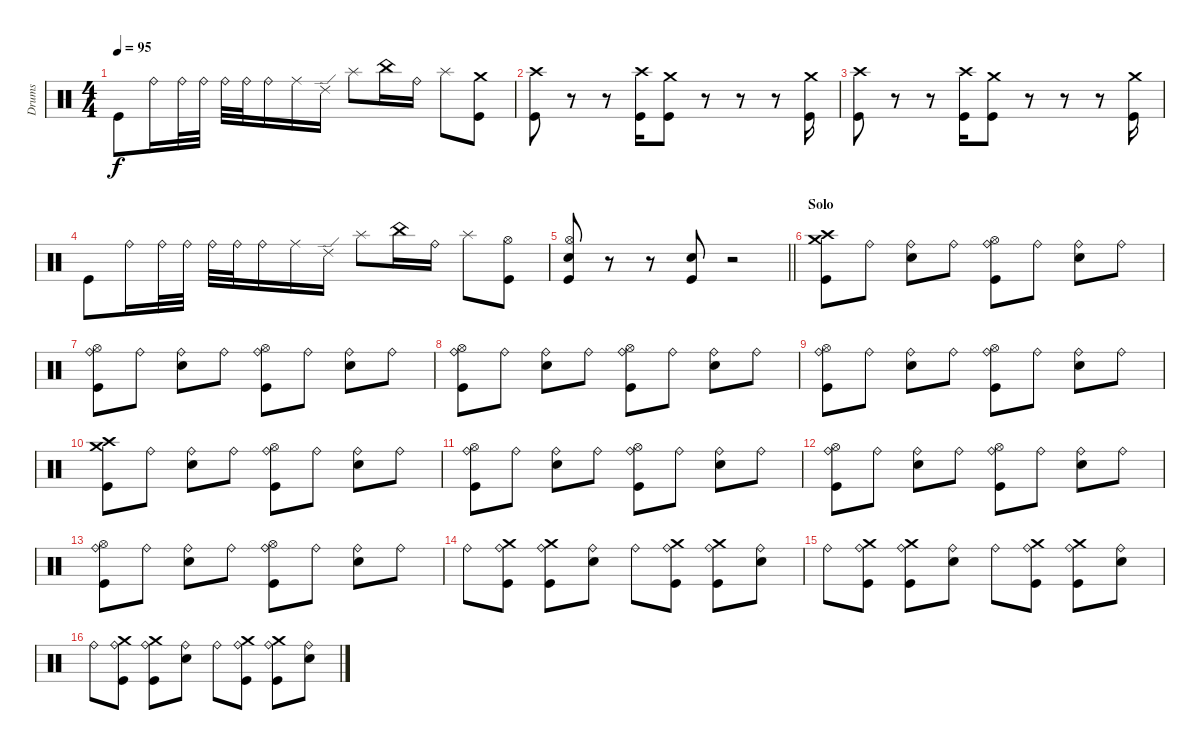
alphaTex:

\track ("Drums" "Drums") {instrument percussion}
\staff {score}
\articulation defaults
\ts (4 4)
\tempo 95
\clef neutral
\ks c "Kick (hit)".8{dy f} "Ride (bell)".16 "Ride (bell)".32 "Ride (bell)".32 "Ride (bell)".32 "Ride (bell)".32 "Ride (bell)".16 "Ride (middle)".16 "Ride (edge) 2".16 "Splash (hit)".8 "China (hit)".16 "Ride (bell)".16 "Splash (hit)".8
("Crash medium (hit)" "Kick (hit)").8 |
("Crash high (hit)" "Kick (hit)").8 r.8 r.8 ("Crash high (hit)" "Kick (hit)").16 ("Crash medium (hit)" "Kick (hit)").8 r.8 r.8 r.8 ("Crash medium (hit)" "Kick (hit)").16 |
("Crash high (hit)" "Kick (hit)").8 r.8 r.8 ("Crash high (hit)" "Kick (hit)").16 ("Crash medium (hit)" "Kick (hit)").8 r.8 r.8 r.8 ("Crash medium (hit)" "Kick (hit)").16 |
"Kick (hit)".8 "Ride (bell)".16 "Ride (bell)".32 "Ride (bell)".32 "Ride (bell)".32 "Ride (bell)".32 "Ride (bell)".16 "Ride (middle)".16 "Ride (edge) 2".16 "Splash (hit)".8 "China (hit)".16 "Ride (bell)".16 "Splash (hit)".8 ("Hi-Hat (open)" "Kick (hit)").8 |
\barLineRight lightlight
("Hi-Hat (open)" "Snare (hit) 2" "Kick (hit)").8 r.8 r.8 ("Snare (hit) 2" "Kick (hit)").8 r.2 |
\section ("" "Solo")
("Crash high (hit)" "Crash medium (hit)" "Kick (hit)").8 "Ride (bell)".8 ("Ride (bell)" "Snare (hit) 2").8 "Ride (bell)".8 ("Hi-Hat (open)" "Ride (bell)" "Kick (hit)").8 "Ride (bell)".8 ("Ride (bell)" "Snare (hit) 2").8 "Ride (bell)".8 |
("Hi-Hat (open)" "Ride (bell)" "Kick (hit)").8 "Ride (bell)".8 ("Ride (bell)" "Snare (hit) 2").8 "Ride (bell)".8 ("Hi-Hat (open)" "Ride (bell)" "Kick (hit)").8 "Ride (bell)".8 ("Ride (bell)" "Snare (hit) 2").8 "Ride (bell)".8 |
("Hi-Hat (open)" "Ride (bell)" "Kick (hit)").8 "Ride (bell)".8 ("Ride (bell)" "Snare (hit) 2").8 "Ride (bell)".8 ("Hi-Hat (open)" "Ride (bell)" "Kick (hit)").8 "Ride (bell)".8 ("Ride (bell)" "Snare (hit) 2").8 "Ride (bell)".8 |
("Hi-Hat (open)" "Ride (bell)" "Kick (hit)").8 "Ride (bell)".8 ("Ride (bell)" "Snare (hit) 2").8 "Ride (bell)".8 ("Hi-Hat (open)" "Ride (bell)" "Kick (hit)").8 "Ride (bell)".8 ("Ride (bell)" "Snare (hit) 2").8 "Ride (bell)".8 |
("Crash high (hit)" "Crash medium (hit)" "Kick (hit)").8 "Ride (bell)".8 ("Ride (bell)" "Snare (hit) 2").8 "Ride (bell)".8 ("Hi-Hat (open)" "Ride (bell)" "Kick (hit)").8 "Ride (bell)".8 ("Ride (bell)" "Snare (hit) 2").8 "Ride (bell)".8 |
("Hi-Hat (open)" "Ride (bell)" "Kick (hit)").8 "Ride (bell)".8 ("Ride (bell)" "Snare (hit) 2").8 "Ride (bell)".8 ("Hi-Hat (open)" "Ride (bell)" "Kick (hit)").8 "Ride (bell)".8 ("Ride (bell)" "Snare (hit) 2").8 "Ride (bell)".8 |
("Hi-Hat (open)" "Ride (bell)" "Kick (hit)").8 "Ride (bell)".8 ("Ride (bell)" "Snare (hit) 2").8 "Ride (bell)".8 ("Hi-Hat (open)" "Ride (bell)" "Kick (hit)").8 "Ride (bell)".8 ("Ride (bell)" "Snare (hit) 2").8 "Ride (bell)".8 |
("Hi-Hat (open)" "Ride (bell)" "Kick (hit)").8 "Ride (bell)".8 ("Ride (bell)" "Snare (hit) 2").8 "Ride (bell)".8 ("Hi-Hat (open)" "Ride (bell)" "Kick (hit)").8 "Ride (bell)".8 ("Ride (bell)" "Snare (hit) 2").8 "Ride (bell)".8 |
"Ride (bell)".8 ("Crash medium (hit)" "Ride (bell)" "Kick (hit)").8 ("Crash medium (hit)" "Ride (bell)" "Kick (hit)").8 ("Ride (bell)" "Snare (hit) 2").8 "Ride (bell)".8 ("Crash medium (hit)" "Ride (bell)" "Kick (hit)").8 ("Crash medium (hit)" "Ride (bell)" "Kick (hit)").8 ("Ride (bell)" "Snare (hit) 2").8 |
"Ride (bell)".8 ("Crash medium (hit)" "Ride (bell)" "Kick (hit)").8 ("Crash medium (hit)" "Ride (bell)" "Kick (hit)").8 ("Ride (bell)" "Snare (hit) 2").8 "Ride (bell)".8 ("Crash medium (hit)" "Ride (bell)" "Kick (hit)").8 ("Crash medium (hit)" "Ride (bell)" "Kick (hit)").8 ("Ride (bell)" "Snare (hit) 2").8 |
"Ride (bell)".8 ("Crash medium (hit)" "Ride (bell)" "Kick (hit)").8 ("Crash medium (hit)" "Ride (bell)" "Kick (hit)").8 ("Ride (bell)" "Snare (hit) 2").8 "Ride (bell)".8 ("Crash medium (hit)" "Ride (bell)" "Kick (hit)").8 ("Crash medium (hit)" "Ride (bell)" "Kick (hit)").8 ("Ride (bell)" "Snare (hit) 2").8
